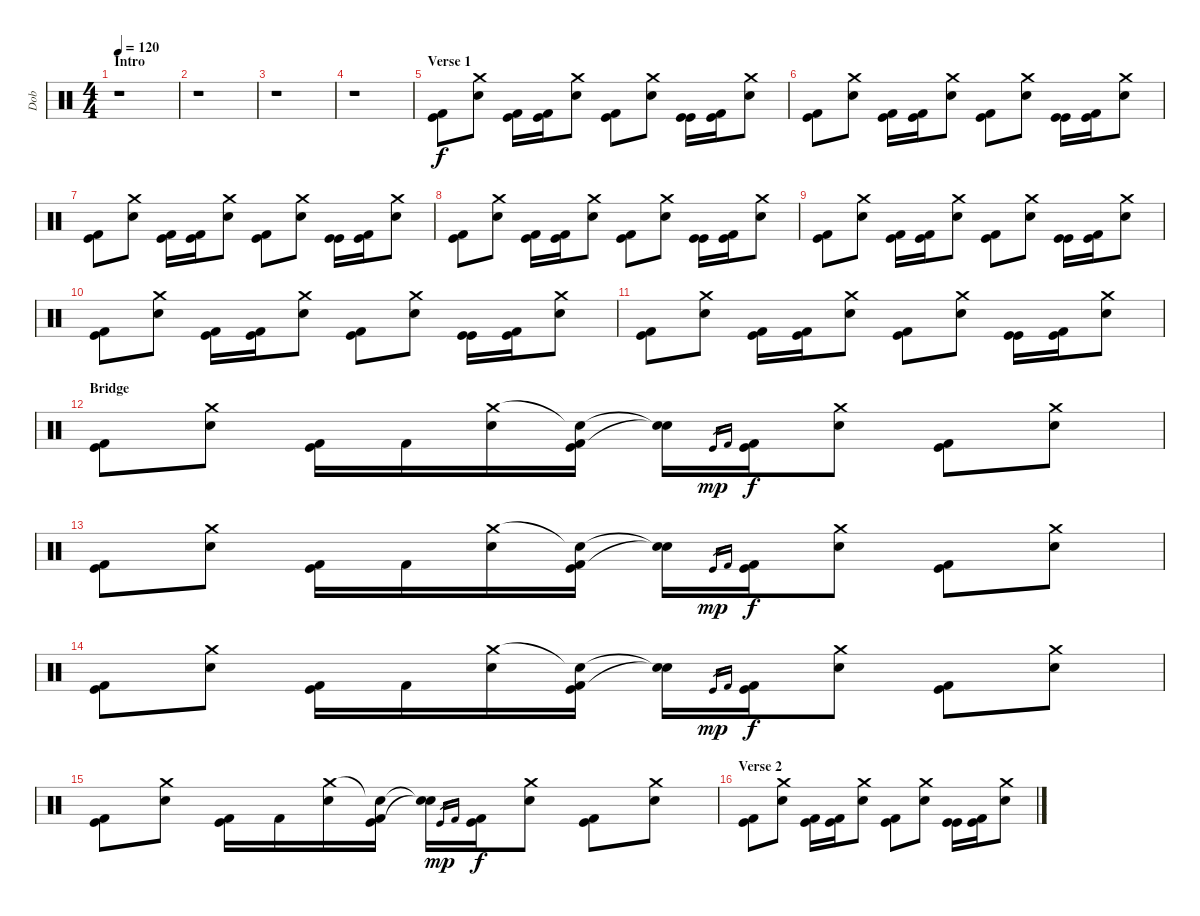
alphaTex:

\track ("Dob" "Dob") {instrument percussion}
\staff {score}
\articulation defaults
\ts (4 4)
\section ("" "Intro")
\tempo 120
\clef neutral
\ks c
r.1{dy f} |
r.1 |
r.1 |
r.1 |
\section ("" "Verse 1")
("Kick (hit)" "Kick (hit) 2").8 ("Crash medium (hit)" "Snare (hit) 2").8 ("Kick (hit)" "Kick (hit) 2").16 ("Kick (hit)" "Kick (hit) 2").16 ("Crash medium (hit)" "Snare (hit) 2").8 ("Kick (hit)" "Kick (hit) 2").8 ("Crash medium (hit)" "Snare (hit) 2").8 ("Kick (hit)" "Kick (hit)").16 ("Kick (hit)" "Kick (hit) 2").16 ("Crash medium (hit)" "Snare (hit) 2").8 |
("Kick (hit)" "Kick (hit) 2").8 ("Crash medium (hit)" "Snare (hit) 2").8 ("Kick (hit)" "Kick (hit) 2").16 ("Kick (hit)" "Kick (hit) 2").16 ("Crash medium (hit)" "Snare (hit) 2").8 ("Kick (hit)" "Kick (hit) 2").8 ("Crash medium (hit)" "Snare (hit) 2").8 ("Kick (hit)" "Kick (hit)").16 ("Kick (hit)" "Kick (hit) 2").16 ("Crash medium (hit)" "Snare (hit) 2").8 |
("Kick (hit)" "Kick (hit) 2").8 ("Crash medium (hit)" "Snare (hit) 2").8 ("Kick (hit)" "Kick (hit) 2").16 ("Kick (hit)" "Kick (hit) 2").16 ("Crash medium (hit)" "Snare (hit) 2").8 ("Kick (hit)" "Kick (hit) 2").8 ("Crash medium (hit)" "Snare (hit) 2").8 ("Kick (hit)" "Kick (hit)").16 ("Kick (hit)" "Kick (hit) 2").16 ("Crash medium (hit)" "Snare (hit) 2").8 |
("Kick (hit)" "Kick (hit) 2").8 ("Crash medium (hit)" "Snare (hit) 2").8 ("Kick (hit)" "Kick (hit) 2").16 ("Kick (hit)" "Kick (hit) 2").16 ("Crash medium (hit)" "Snare (hit) 2").8 ("Kick (hit)" "Kick (hit) 2").8 ("Crash medium (hit)" "Snare (hit) 2").8 ("Kick (hit)" "Kick (hit)").16 ("Kick (hit)" "Kick (hit) 2").16 ("Crash medium (hit)" "Snare (hit) 2").8 |
("Kick (hit)" "Kick (hit) 2").8 ("Crash medium (hit)" "Snare (hit) 2").8 ("Kick (hit)" "Kick (hit) 2").16 ("Kick (hit)" "Kick (hit) 2").16 ("Crash medium (hit)" "Snare (hit) 2").8 ("Kick (hit)" "Kick (hit) 2").8 ("Crash medium (hit)" "Snare (hit) 2").8 ("Kick (hit)" "Kick (hit)").16 ("Kick (hit)" "Kick (hit) 2").16 ("Crash medium (hit)" "Snare (hit) 2").8 |
("Kick (hit)" "Kick (hit) 2").8 ("Crash medium (hit)" "Snare (hit) 2").8 ("Kick (hit)" "Kick (hit) 2").16 ("Kick (hit)" "Kick (hit) 2").16 ("Crash medium (hit)" "Snare (hit) 2").8 ("Kick (hit)" "Kick (hit) 2").8 ("Crash medium (hit)" "Snare (hit) 2").8 ("Kick (hit)" "Kick (hit)").16 ("Kick (hit)" "Kick (hit) 2").16 ("Crash medium (hit)" "Snare (hit) 2").8 |
("Kick (hit)" "Kick (hit) 2").8 ("Crash medium (hit)" "Snare (hit) 2").8 ("Kick (hit)" "Kick (hit) 2").16 ("Kick (hit)" "Kick (hit) 2").16 ("Crash medium (hit)" "Snare (hit) 2").8 ("Kick (hit)" "Kick (hit) 2").8 ("Crash medium (hit)" "Snare (hit) 2").8 ("Kick (hit)" "Kick (hit)").16 ("Kick (hit)" "Kick (hit) 2").16 ("Crash medium (hit)" "Snare (hit) 2").8 |
\section ("" "Bridge")
("Kick (hit)" "Kick (hit) 2").8 ("Crash medium (hit)" "Snare (hit) 2").8 ("Kick (hit)" "Kick (hit) 2").16 "Kick (hit) 2".16 ("Crash medium (hit)" "Snare (hit) 2").16 ("Snare (hit)"{t} "Kick (hit)" "Kick (hit) 2").16 ("Snare (hit)"{t} "Snare (hit)"{t}).16 "Kick (hit)".16{gr dy mp} "Kick (hit) 2".16{gr} ("Kick (hit)" "Kick (hit) 2").16{dy f} ("Crash medium (hit)" "Snare (hit) 2").8 ("Kick (hit)" "Kick (hit) 2").8 ("Crash medium (hit)" "Snare (hit) 2").8 |
("Kick (hit)" "Kick (hit) 2").8 ("Crash medium (hit)" "Snare (hit) 2").8 ("Kick (hit)" "Kick (hit) 2").16 "Kick (hit) 2".16 ("Crash medium (hit)" "Snare (hit) 2").16 ("Snare (hit)"{t} "Kick (hit)" "Kick (hit) 2").16 ("Snare (hit)"{t} "Snare (hit)"{t}).16 "Kick (hit)".16{gr dy mp} "Kick (hit) 2".16{gr} ("Kick (hit)" "Kick (hit) 2").16{dy f} ("Crash medium (hit)" "Snare (hit) 2").8 ("Kick (hit)" "Kick (hit) 2").8 ("Crash medium (hit)" "Snare (hit) 2").8 |
("Kick (hit)" "Kick (hit) 2").8 ("Crash medium (hit)" "Snare (hit) 2").8 ("Kick (hit)" "Kick (hit) 2").16 "Kick (hit) 2".16 ("Crash medium (hit)" "Snare (hit) 2").16 ("Snare (hit)"{t} "Kick (hit)" "Kick (hit) 2").16 ("Snare (hit)"{t} "Snare (hit)"{t}).16 "Kick (hit)".16{gr dy mp} "Kick (hit) 2".16{gr} ("Kick (hit)" "Kick (hit) 2").16{dy f} ("Crash medium (hit)" "Snare (hit) 2").8 ("Kick (hit)" "Kick (hit) 2").8 ("Crash medium (hit)" "Snare (hit) 2").8 |
("Kick (hit)" "Kick (hit) 2").8 ("Crash medium (hit)" "Snare (hit) 2").8 ("Kick (hit)" "Kick (hit) 2").16 "Kick (hit) 2".16 ("Crash medium (hit)" "Snare (hit) 2").16 ("Snare (hit)"{t} "Kick (hit)" "Kick (hit) 2").16 ("Snare (hit)"{t} "Snare (hit)"{t}).16 "Kick (hit)".16{gr dy mp} "Kick (hit) 2".16{gr} ("Kick (hit)" "Kick (hit) 2").16{dy f} ("Crash medium (hit)" "Snare (hit) 2").8 ("Kick (hit)" "Kick (hit) 2").8 ("Crash medium (hit)" "Snare (hit) 2").8 |
\section ("" "Verse 2")
("Kick (hit)" "Kick (hit) 2").8 ("Crash medium (hit)" "Snare (hit) 2").8 ("Kick (hit)" "Kick (hit) 2").16 ("Kick (hit)" "Kick (hit) 2").16 ("Crash medium (hit)" "Snare (hit) 2").8 ("Kick (hit)" "Kick (hit) 2").8 ("Crash medium (hit)" "Snare (hit) 2").8 ("Kick (hit)" "Kick (hit)").16 ("Kick (hit)" "Kick (hit) 2").16 ("Crash medium (hit)" "Snare (hit) 2").8
